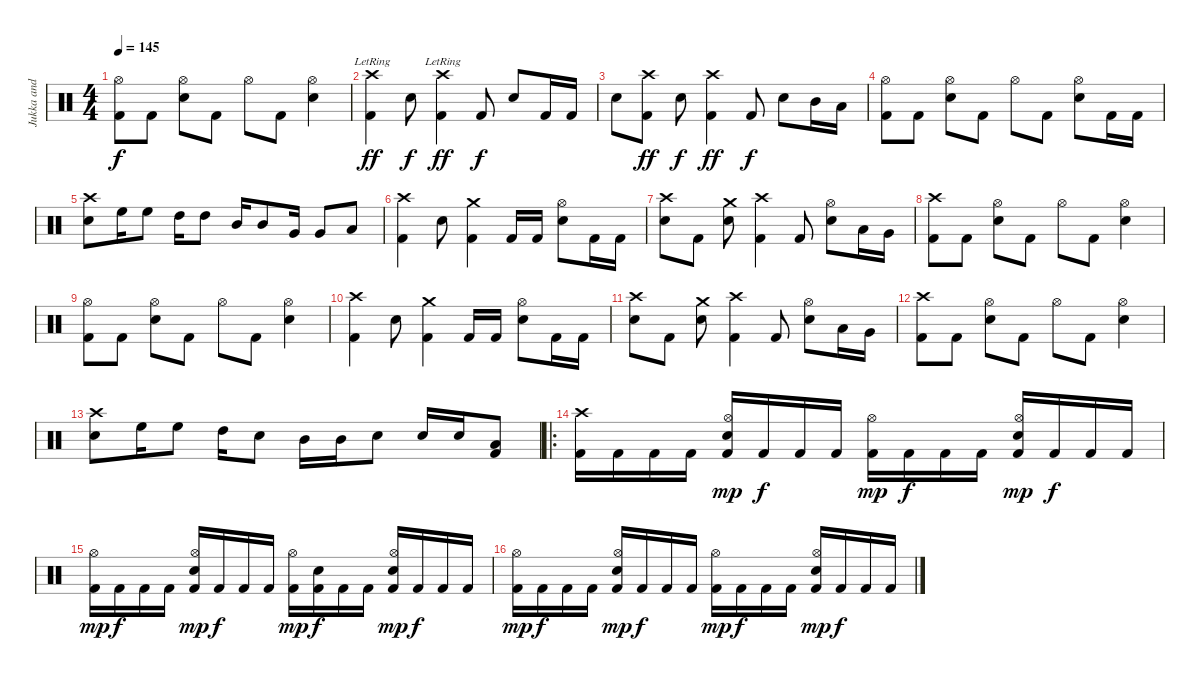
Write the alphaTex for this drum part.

\track ("Jukka and his drums" "Jukka and ") {instrument percussion}
\staff {score}
\articulation defaults
\ts (4 4)
\tempo 145
\clef neutral
\ks c
("Kick (hit) 2" "Hi-Hat (open)").8{dy f} "Kick (hit) 2".8 ("Hi-Hat (open)" "Snare (hit) 2").8 "Kick (hit) 2".8 "Hi-Hat (open)".8 "Kick (hit) 2".8 ("Hi-Hat (open)" "Snare (hit) 2").4 |
("Kick (hit) 2" "Crash high (hit)"{lr}).4{dy ff} "Snare (hit) 2".8{dy f} ("Kick (hit) 2" "Crash high (hit)"{lr}).4{dy ff} "Kick (hit) 2".8{dy f} "Snare (hit) 2".8 "Kick (hit) 2".16 "Kick (hit) 2".16 |
"Snare (hit) 2".8 ("Kick (hit) 2" "Crash high (hit)").8{dy ff} "Snare (hit) 2".8{dy f} ("Kick (hit) 2" "Crash high (hit)").4{dy ff} "Kick (hit) 2".8{dy f} "Snare (hit) 2".8 "Mid Tom (hit)".16 "Low Tom (hit)".16 |
("Kick (hit) 2" "Hi-Hat (open)").8 "Kick (hit) 2".8 ("Hi-Hat (open)" "Snare (hit) 2").8 "Kick (hit) 2".8 "Hi-Hat (open)".8 "Kick (hit) 2".8 ("Hi-Hat (open)" "Snare (hit) 2").8 "Kick (hit) 2".16 "Kick (hit) 2".16 |
("Crash high (hit)" "Snare (hit) 2").8 "High Floor Tom (hit)".16 "High Floor Tom (hit)".8 "High Tom (hit)".16 "High Tom (hit)".8 "Mid Tom (hit)".16 "Mid Tom (hit)".8 "Very Low Tom (hit)".16 "Very Low Tom (hit)".8 "Low Floor Tom (hit)".8 |
("Kick (hit) 2" "Crash high (hit)").4 "Snare (hit) 2".8 ("Kick (hit) 2" "Crash medium (hit)").4 "Kick (hit) 2".16 "Kick (hit) 2".16 ("Hi-Hat (open)" "Snare (hit) 2").8 "Kick (hit) 2".16 "Kick (hit) 2".16 |
("Crash high (hit)" "Snare (hit) 2").8 "Kick (hit) 2".8 ("Crash medium (hit)" "Snare (hit) 2").8 ("Kick (hit) 2" "Crash high (hit)").4 "Kick (hit) 2".8 ("Hi-Hat (open)" "Snare (hit) 2").8 "Low Tom (hit)".16 "Very Low Tom (hit)".16 |
("Kick (hit) 2" "Crash high (hit)").8 "Kick (hit) 2".8 ("Hi-Hat (open)" "Snare (hit) 2").8 "Kick (hit) 2".8 "Hi-Hat (open)".8 "Kick (hit) 2".8 ("Hi-Hat (open)" "Snare (hit) 2").4 |
("Kick (hit) 2" "Hi-Hat (open)").8 "Kick (hit) 2".8 ("Hi-Hat (open)" "Snare (hit) 2").8 "Kick (hit) 2".8 "Hi-Hat (open)".8 "Kick (hit) 2".8 ("Hi-Hat (open)" "Snare (hit) 2").4 |
("Kick (hit) 2" "Crash high (hit)").4 "Snare (hit) 2".8 ("Kick (hit) 2" "Crash medium (hit)").4 "Kick (hit) 2".16 "Kick (hit) 2".16 ("Hi-Hat (open)" "Snare (hit) 2").8 "Kick (hit) 2".16 "Kick (hit) 2".16 |
("Crash high (hit)" "Snare (hit) 2").8 "Kick (hit) 2".8 ("Crash medium (hit)" "Snare (hit) 2").8 ("Kick (hit) 2" "Crash high (hit)").4 "Kick (hit) 2".8 ("Hi-Hat (open)" "Snare (hit) 2").8 "Low Tom (hit)".16 "Very Low Tom (hit)".16 |
("Kick (hit) 2" "Crash high (hit)").8 "Kick (hit) 2".8 ("Hi-Hat (open)" "Snare (hit) 2").8 "Kick (hit) 2".8 "Hi-Hat (open)".8 "Kick (hit) 2".8 ("Hi-Hat (open)" "Snare (hit) 2").4 |
("Crash high (hit)" "Snare (hit) 2").8 "High Floor Tom (hit)".16 "High Floor Tom (hit)".8 "High Tom (hit)".16 "Snare (hit) 2".8 "Mid Tom (hit)".16 "Mid Tom (hit)".16 "Snare (hit) 2".8 "Snare (hit) 2".16 "Snare (hit) 2".16 ("Kick (hit) 2" "Low Tom (hit)").8 |
\ro
("Kick (hit) 2" "Crash high (hit)").16 "Kick (hit) 2".16 "Kick (hit) 2".16 "Kick (hit) 2".16 ("Kick (hit) 2" "Hi-Hat (open)" "Snare (hit) 2").16{dy mp} "Kick (hit) 2".16{dy f} "Kick (hit) 2".16 "Kick (hit) 2".16 ("Kick (hit) 2" "Hi-Hat (open)").16{dy mp} "Kick (hit) 2".16{dy f} "Kick (hit) 2".16 "Kick (hit) 2".16 ("Kick (hit) 2" "Hi-Hat (open)" "Snare (hit) 2").16{dy mp} "Kick (hit) 2".16{dy f} "Kick (hit) 2".16 "Kick (hit) 2".16 |
("Kick (hit) 2" "Hi-Hat (open)").16{dy mp} "Kick (hit) 2".16{dy f} "Kick (hit) 2".16 "Kick (hit) 2".16 ("Kick (hit) 2" "Hi-Hat (open)" "Snare (hit) 2").16{dy mp} "Kick (hit) 2".16{dy f} "Kick (hit) 2".16 "Kick (hit) 2".16 ("Kick (hit) 2" "Hi-Hat (open)").16{dy mp} ("Kick (hit) 2" "Snare (hit) 2").16{dy f} "Kick (hit) 2".16 "Kick (hit) 2".16 ("Kick (hit) 2" "Hi-Hat (open)" "Snare (hit) 2").16{dy mp} "Kick (hit) 2".16{dy f} "Kick (hit) 2".16 "Kick (hit) 2".16 |
("Kick (hit) 2" "Hi-Hat (open)").16{dy mp} "Kick (hit) 2".16{dy f} "Kick (hit) 2".16 "Kick (hit) 2".16 ("Kick (hit) 2" "Hi-Hat (open)" "Snare (hit) 2").16{dy mp} "Kick (hit) 2".16{dy f} "Kick (hit) 2".16 "Kick (hit) 2".16 ("Kick (hit) 2" "Hi-Hat (open)").16{dy mp} "Kick (hit) 2".16{dy f} "Kick (hit) 2".16 "Kick (hit) 2".16 ("Kick (hit) 2" "Hi-Hat (open)" "Snare (hit) 2").16{dy mp} "Kick (hit) 2".16{dy f} "Kick (hit) 2".16 "Kick (hit) 2".16
